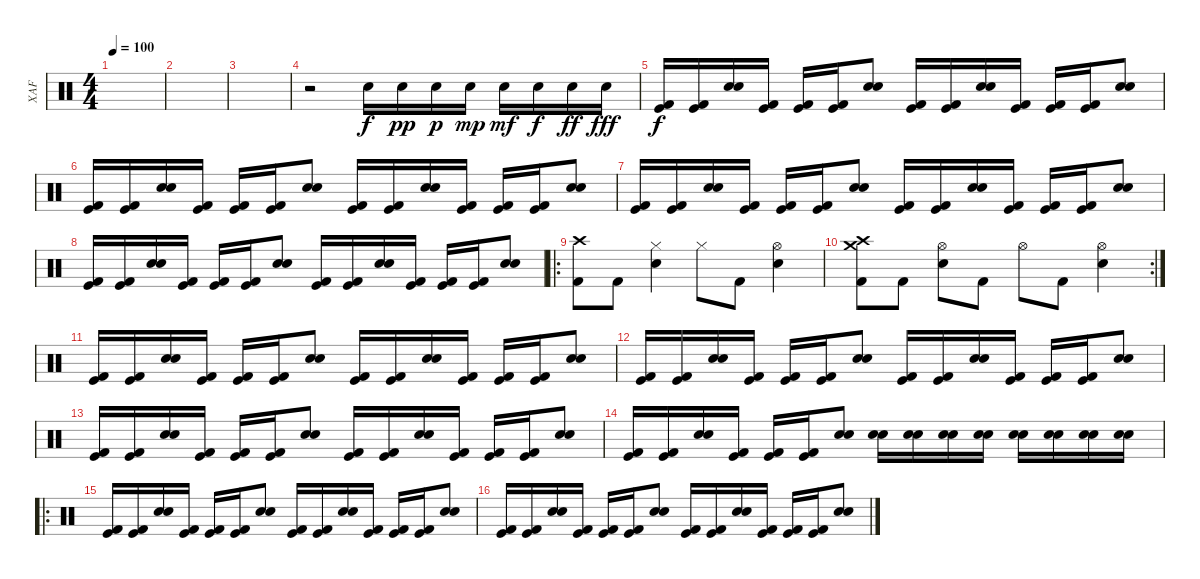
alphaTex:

\track ("XAF" "XAF") {instrument percussion}
\staff {score}
\articulation defaults
\ts (4 4)
\tempo 100
\clef neutral
\ks c
|
|
|
r.2 "Snare (hit) 2".16 "Snare (hit) 2".16{dy pp} "Snare (hit) 2".16{dy p} "Snare (hit) 2".16{dy mp} "Snare (hit) 2".16{dy mf} "Snare (hit) 2".16{dy f} "Snare (hit) 2".16{dy ff} "Snare (hit) 2".16{dy fff} |
("Kick (hit) 2" "Kick (hit)").16{dy f} ("Kick (hit) 2" "Kick (hit)").16 ("Electric Snare (hit)" "Snare (hit) 2").16 ("Kick (hit) 2" "Kick (hit)").16 ("Kick (hit) 2" "Kick (hit)").16 ("Kick (hit) 2" "Kick (hit)").16 ("Electric Snare (hit)" "Snare (hit) 2").8 ("Kick (hit) 2" "Kick (hit)").16 ("Kick (hit) 2" "Kick (hit)").16 ("Electric Snare (hit)" "Snare (hit) 2").16 ("Kick (hit) 2" "Kick (hit)").16 ("Kick (hit) 2" "Kick (hit)").16 ("Kick (hit) 2" "Kick (hit)").16 ("Electric Snare (hit)" "Snare (hit) 2").8 |
("Kick (hit) 2" "Kick (hit)").16 ("Kick (hit) 2" "Kick (hit)").16 ("Electric Snare (hit)" "Snare (hit) 2").16 ("Kick (hit) 2" "Kick (hit)").16 ("Kick (hit) 2" "Kick (hit)").16 ("Kick (hit) 2" "Kick (hit)").16 ("Electric Snare (hit)" "Snare (hit) 2").8 ("Kick (hit) 2" "Kick (hit)").16 ("Kick (hit) 2" "Kick (hit)").16 ("Electric Snare (hit)" "Snare (hit) 2").16 ("Kick (hit) 2" "Kick (hit)").16 ("Kick (hit) 2" "Kick (hit)").16 ("Kick (hit) 2" "Kick (hit)").16 ("Electric Snare (hit)" "Snare (hit) 2").8 |
("Kick (hit) 2" "Kick (hit)").16 ("Kick (hit) 2" "Kick (hit)").16 ("Electric Snare (hit)" "Snare (hit) 2").16 ("Kick (hit) 2" "Kick (hit)").16 ("Kick (hit) 2" "Kick (hit)").16 ("Kick (hit) 2" "Kick (hit)").16 ("Electric Snare (hit)" "Snare (hit) 2").8 ("Kick (hit) 2" "Kick (hit)").16 ("Kick (hit) 2" "Kick (hit)").16 ("Electric Snare (hit)" "Snare (hit) 2").16 ("Kick (hit) 2" "Kick (hit)").16 ("Kick (hit) 2" "Kick (hit)").16 ("Kick (hit) 2" "Kick (hit)").16 ("Electric Snare (hit)" "Snare (hit) 2").8 |
("Kick (hit) 2" "Kick (hit)").16 ("Kick (hit) 2" "Kick (hit)").16 ("Electric Snare (hit)" "Snare (hit) 2").16 ("Kick (hit) 2" "Kick (hit)").16 ("Kick (hit) 2" "Kick (hit)").16 ("Kick (hit) 2" "Kick (hit)").16 ("Electric Snare (hit)" "Snare (hit) 2").8 ("Kick (hit) 2" "Kick (hit)").16 ("Kick (hit) 2" "Kick (hit)").16 ("Electric Snare (hit)" "Snare (hit) 2").16 ("Kick (hit) 2" "Kick (hit)").16 ("Kick (hit) 2" "Kick (hit)").16 ("Kick (hit) 2" "Kick (hit)").16 ("Electric Snare (hit)" "Snare (hit) 2").8 |
\ro
("Crash high (hit)" "Kick (hit) 2").8 "Kick (hit) 2".8 ("Hi-Hat (closed)" "Electric Snare (hit)").4 "Hi-Hat (closed)".8 "Kick (hit) 2".8 ("Hi-Hat (open)" "Electric Snare (hit)").4 |
\rc 2
("Crash medium (hit)" "Crash high (hit)" "Kick (hit) 2").8 "Kick (hit) 2".8 ("Hi-Hat (open)" "Electric Snare (hit)").8 "Kick (hit) 2".8 "Hi-Hat (open)".8 "Kick (hit) 2".8 ("Hi-Hat (open)" "Electric Snare (hit)").4 |
("Kick (hit) 2" "Kick (hit)").16 ("Kick (hit) 2" "Kick (hit)").16 ("Electric Snare (hit)" "Snare (hit) 2").16 ("Kick (hit) 2" "Kick (hit)").16 ("Kick (hit) 2" "Kick (hit)").16 ("Kick (hit) 2" "Kick (hit)").16 ("Electric Snare (hit)" "Snare (hit) 2").8 ("Kick (hit) 2" "Kick (hit)").16 ("Kick (hit) 2" "Kick (hit)").16 ("Electric Snare (hit)" "Snare (hit) 2").16 ("Kick (hit) 2" "Kick (hit)").16 ("Kick (hit) 2" "Kick (hit)").16 ("Kick (hit) 2" "Kick (hit)").16 ("Electric Snare (hit)" "Snare (hit) 2").8 |
("Kick (hit) 2" "Kick (hit)").16 ("Kick (hit) 2" "Kick (hit)").16 ("Electric Snare (hit)" "Snare (hit) 2").16 ("Kick (hit) 2" "Kick (hit)").16 ("Kick (hit) 2" "Kick (hit)").16 ("Kick (hit) 2" "Kick (hit)").16 ("Electric Snare (hit)" "Snare (hit) 2").8 ("Kick (hit) 2" "Kick (hit)").16 ("Kick (hit) 2" "Kick (hit)").16 ("Electric Snare (hit)" "Snare (hit) 2").16 ("Kick (hit) 2" "Kick (hit)").16 ("Kick (hit) 2" "Kick (hit)").16 ("Kick (hit) 2" "Kick (hit)").16 ("Electric Snare (hit)" "Snare (hit) 2").8 |
("Kick (hit) 2" "Kick (hit)").16 ("Kick (hit) 2" "Kick (hit)").16 ("Electric Snare (hit)" "Snare (hit) 2").16 ("Kick (hit) 2" "Kick (hit)").16 ("Kick (hit) 2" "Kick (hit)").16 ("Kick (hit) 2" "Kick (hit)").16 ("Electric Snare (hit)" "Snare (hit) 2").8 ("Kick (hit) 2" "Kick (hit)").16 ("Kick (hit) 2" "Kick (hit)").16 ("Electric Snare (hit)" "Snare (hit) 2").16 ("Kick (hit) 2" "Kick (hit)").16 ("Kick (hit) 2" "Kick (hit)").16 ("Kick (hit) 2" "Kick (hit)").16 ("Electric Snare (hit)" "Snare (hit) 2").8 |
("Kick (hit) 2" "Kick (hit)").16 ("Kick (hit) 2" "Kick (hit)").16 ("Electric Snare (hit)" "Snare (hit) 2").16 ("Kick (hit) 2" "Kick (hit)").16 ("Kick (hit) 2" "Kick (hit)").16 ("Kick (hit) 2" "Kick (hit)").16 ("Electric Snare (hit)" "Snare (hit) 2").8 ("Electric Snare (hit)" "Snare (hit) 2").16 ("Electric Snare (hit)" "Snare (hit) 2").16 ("Electric Snare (hit)" "Snare (hit) 2").16 ("Electric Snare (hit)" "Snare (hit) 2").16 ("Electric Snare (hit)" "Snare (hit) 2").16 ("Electric Snare (hit)" "Snare (hit) 2").16 ("Electric Snare (hit)" "Snare (hit) 2").16 ("Electric Snare (hit)" "Snare (hit) 2").16 |
\ro
("Kick (hit) 2" "Kick (hit)").16 ("Kick (hit) 2" "Kick (hit)").16 ("Electric Snare (hit)" "Snare (hit) 2").16 ("Kick (hit) 2" "Kick (hit)").16 ("Kick (hit) 2" "Kick (hit)").16 ("Kick (hit) 2" "Kick (hit)").16 ("Electric Snare (hit)" "Snare (hit) 2").8 ("Kick (hit) 2" "Kick (hit)").16 ("Kick (hit) 2" "Kick (hit)").16 ("Electric Snare (hit)" "Snare (hit) 2").16 ("Kick (hit) 2" "Kick (hit)").16 ("Kick (hit) 2" "Kick (hit)").16 ("Kick (hit) 2" "Kick (hit)").16 ("Electric Snare (hit)" "Snare (hit) 2").8 |
("Kick (hit) 2" "Kick (hit)").16 ("Kick (hit) 2" "Kick (hit)").16 ("Electric Snare (hit)" "Snare (hit) 2").16 ("Kick (hit) 2" "Kick (hit)").16 ("Kick (hit) 2" "Kick (hit)").16 ("Kick (hit) 2" "Kick (hit)").16 ("Electric Snare (hit)" "Snare (hit) 2").8 ("Kick (hit) 2" "Kick (hit)").16 ("Kick (hit) 2" "Kick (hit)").16 ("Electric Snare (hit)" "Snare (hit) 2").16 ("Kick (hit) 2" "Kick (hit)").16 ("Kick (hit) 2" "Kick (hit)").16 ("Kick (hit) 2" "Kick (hit)").16 ("Electric Snare (hit)" "Snare (hit) 2").8
